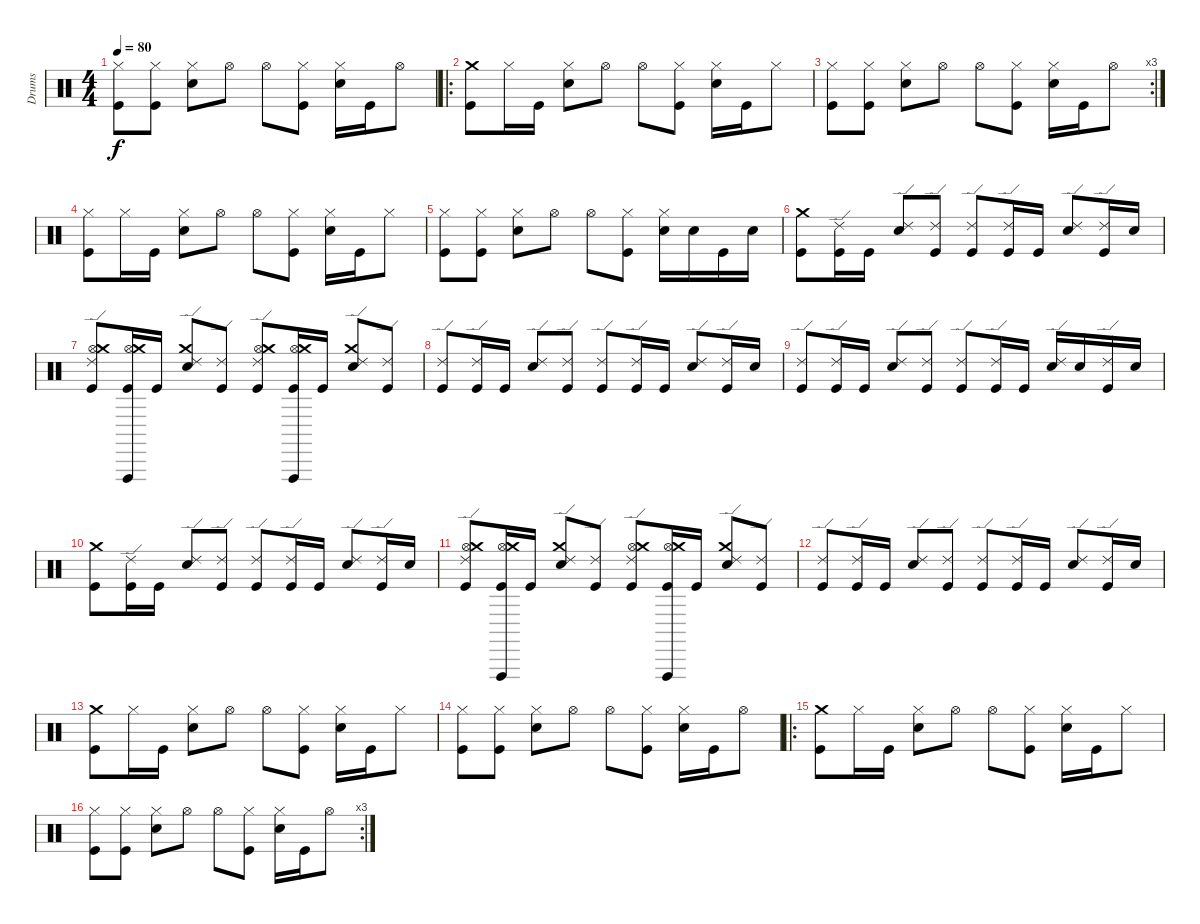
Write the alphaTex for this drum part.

\track ("Drums" "Drums") {instrument percussion}
\staff {score}
\articulation defaults
\ts (4 4)
\tempo 80
\clef neutral
\ks c
("Kick (hit)" "Hi-Hat (closed)").8{dy f} ("Kick (hit)" "Hi-Hat (closed)").8 ("Electric Snare (hit)" "Hi-Hat (closed)").8 "Hi-Hat (open)".8 "Hi-Hat (open)".8 ("Kick (hit)" "Hi-Hat (closed)").8 ("Electric Snare (hit)" "Hi-Hat (closed)").16 "Kick (hit)".16 "Hi-Hat (open)".8 |
\ro
("Kick (hit)" "Crash medium (hit)").8 "Hi-Hat (closed)".16 "Kick (hit)".16 ("Electric Snare (hit)" "Hi-Hat (closed)").8 "Hi-Hat (open)".8 "Hi-Hat (open)".8 ("Kick (hit)" "Hi-Hat (closed)").8 ("Electric Snare (hit)" "Hi-Hat (closed)").16 "Kick (hit)".16 "Hi-Hat (closed)".8 |
\rc 3
("Kick (hit)" "Hi-Hat (closed)").8 ("Kick (hit)" "Hi-Hat (closed)").8 ("Electric Snare (hit)" "Hi-Hat (closed)").8 "Hi-Hat (open)".8 "Hi-Hat (open)".8 ("Kick (hit)" "Hi-Hat (closed)").8 ("Electric Snare (hit)" "Hi-Hat (closed)").16 "Kick (hit)".16 "Hi-Hat (open)".8 |
("Kick (hit)" "Hi-Hat (closed)").8 "Hi-Hat (closed)".16 "Kick (hit)".16 ("Electric Snare (hit)" "Hi-Hat (closed)").8 "Hi-Hat (open)".8 "Hi-Hat (open)".8 ("Kick (hit)" "Hi-Hat (closed)").8 ("Electric Snare (hit)" "Hi-Hat (closed)").16 "Kick (hit)".16 "Hi-Hat (closed)".8 |
("Kick (hit)" "Hi-Hat (closed)").8 ("Kick (hit)" "Hi-Hat (closed)").8 ("Electric Snare (hit)" "Hi-Hat (closed)").8 "Hi-Hat (open)".8 "Hi-Hat (open)".8 ("Kick (hit)" "Hi-Hat (closed)").8 ("Electric Snare (hit)" "Hi-Hat (closed)").16 "Electric Snare (hit)".16 "Kick (hit)".16 "Electric Snare (hit)".16 |
("Kick (hit)" "Crash medium (hit)").8 ("Kick (hit)" "Ride (edge) 2").16 "Kick (hit)".16 ("Electric Snare (hit)" "Ride (edge) 2").8 ("Kick (hit)" "Ride (edge) 2").8 ("Kick (hit)" "Ride (edge) 2").8 ("Kick (hit)" "Ride (edge) 2").16 "Kick (hit)".16 ("Electric Snare (hit)" "Ride (edge) 2").8 ("Kick (hit)" "Ride (edge) 2").16 "Electric Snare (hit)".16 |
("Kick (hit)" "Hi-Hat (open)" "Crash medium (hit)" "Ride (edge) 2").8 ("Kick (hit)" "Hi-Hat (open)" "Crash medium (hit)" "Vibraslap (hit)").16 "Kick (hit)".16 ("Electric Snare (hit)" "Crash medium (hit)" "Ride (edge) 2").8 ("Kick (hit)" "Ride (edge) 2").8 ("Kick (hit)" "Hi-Hat (open)" "Crash medium (hit)" "Ride (edge) 2").8 ("Kick (hit)" "Hi-Hat (open)" "Crash medium (hit)" "Vibraslap (hit)").16 "Kick (hit)".16 ("Electric Snare (hit)" "Crash medium (hit)" "Ride (edge) 2").8 ("Kick (hit)" "Ride (edge) 2").8 |
("Kick (hit)" "Ride (edge) 2").8 ("Kick (hit)" "Ride (edge) 2").16 "Kick (hit)".16 ("Electric Snare (hit)" "Ride (edge) 2").8 ("Kick (hit)" "Ride (edge) 2").8 ("Kick (hit)" "Ride (edge) 2").8 ("Kick (hit)" "Ride (edge) 2").16 "Kick (hit)".16 ("Electric Snare (hit)" "Ride (edge) 2").8 ("Kick (hit)" "Ride (edge) 2").16 "Electric Snare (hit)".16 |
("Kick (hit)" "Ride (edge) 2").8 ("Kick (hit)" "Ride (edge) 2").16 "Kick (hit)".16 ("Electric Snare (hit)" "Ride (edge) 2").8 ("Kick (hit)" "Ride (edge) 2").8 ("Kick (hit)" "Ride (edge) 2").8 ("Kick (hit)" "Ride (edge) 2").16 "Kick (hit)".16 ("Electric Snare (hit)" "Ride (edge) 2").16 "Electric Snare (hit)".16 ("Kick (hit)" "Ride (edge) 2").16 "Electric Snare (hit)".16 |
("Kick (hit)" "Crash medium (hit)").8 ("Kick (hit)" "Ride (edge) 2").16 "Kick (hit)".16 ("Electric Snare (hit)" "Ride (edge) 2").8 ("Kick (hit)" "Ride (edge) 2").8 ("Kick (hit)" "Ride (edge) 2").8 ("Kick (hit)" "Ride (edge) 2").16 "Kick (hit)".16 ("Electric Snare (hit)" "Ride (edge) 2").8 ("Kick (hit)" "Ride (edge) 2").16 "Electric Snare (hit)".16 |
("Kick (hit)" "Hi-Hat (open)" "Crash medium (hit)" "Ride (edge) 2").8 ("Kick (hit)" "Hi-Hat (open)" "Crash medium (hit)" "Vibraslap (hit)").16 "Kick (hit)".16 ("Electric Snare (hit)" "Crash medium (hit)" "Ride (edge) 2").8 ("Kick (hit)" "Ride (edge) 2").8 ("Kick (hit)" "Hi-Hat (open)" "Crash medium (hit)" "Ride (edge) 2").8 ("Kick (hit)" "Hi-Hat (open)" "Crash medium (hit)" "Vibraslap (hit)").16 "Kick (hit)".16 ("Electric Snare (hit)" "Crash medium (hit)" "Ride (edge) 2").8 ("Kick (hit)" "Ride (edge) 2").8 |
("Kick (hit)" "Ride (edge) 2").8 ("Kick (hit)" "Ride (edge) 2").16 "Kick (hit)".16 ("Electric Snare (hit)" "Ride (edge) 2").8 ("Kick (hit)" "Ride (edge) 2").8 ("Kick (hit)" "Ride (edge) 2").8 ("Kick (hit)" "Ride (edge) 2").16 "Kick (hit)".16 ("Electric Snare (hit)" "Ride (edge) 2").8 ("Kick (hit)" "Ride (edge) 2").16 "Electric Snare (hit)".16 |
("Kick (hit)" "Crash medium (hit)").8 "Hi-Hat (closed)".16 "Kick (hit)".16 ("Electric Snare (hit)" "Hi-Hat (closed)").8 "Hi-Hat (open)".8 "Hi-Hat (open)".8 ("Kick (hit)" "Hi-Hat (closed)").8 ("Electric Snare (hit)" "Hi-Hat (closed)").16 "Kick (hit)".16 "Hi-Hat (closed)".8 |
("Kick (hit)" "Hi-Hat (closed)").8 ("Kick (hit)" "Hi-Hat (closed)").8 ("Electric Snare (hit)" "Hi-Hat (closed)").8 "Hi-Hat (open)".8 "Hi-Hat (open)".8 ("Kick (hit)" "Hi-Hat (closed)").8 ("Electric Snare (hit)" "Hi-Hat (closed)").16 "Kick (hit)".16 "Hi-Hat (open)".8 |
\ro
("Kick (hit)" "Crash medium (hit)").8 "Hi-Hat (closed)".16 "Kick (hit)".16 ("Electric Snare (hit)" "Hi-Hat (closed)").8 "Hi-Hat (open)".8 "Hi-Hat (open)".8 ("Kick (hit)" "Hi-Hat (closed)").8 ("Electric Snare (hit)" "Hi-Hat (closed)").16 "Kick (hit)".16 "Hi-Hat (closed)".8 |
\rc 3
("Kick (hit)" "Hi-Hat (closed)").8 ("Kick (hit)" "Hi-Hat (closed)").8 ("Electric Snare (hit)" "Hi-Hat (closed)").8 "Hi-Hat (open)".8 "Hi-Hat (open)".8 ("Kick (hit)" "Hi-Hat (closed)").8 ("Electric Snare (hit)" "Hi-Hat (closed)").16 "Kick (hit)".16 "Hi-Hat (open)".8
